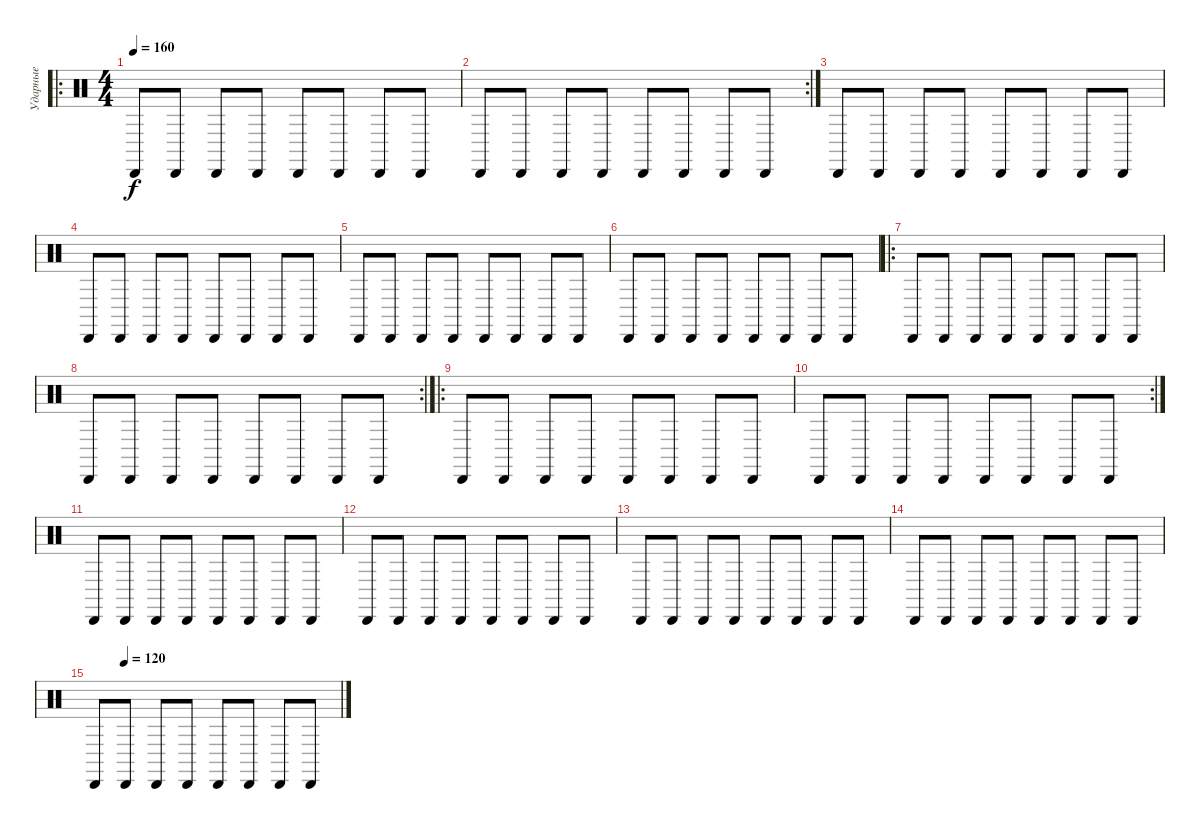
\track ("Ударные" "Ударные") {instrument percussion}
\staff {score}
\articulation defaults
\ro
\ts (4 4)
\tempo 160
\clef neutral
\ks c "Cabasa (hit)".8{dy f} "Cabasa (hit)".8 "Cabasa (hit)".8 "Cabasa (hit)".8 "Cabasa (hit)".8 "Cabasa (hit)".8 "Cabasa (hit)".8 "Cabasa (hit)".8
|
\rc 2 "Cabasa (hit)".8 "Cabasa (hit)".8 "Cabasa (hit)".8 "Cabasa (hit)".8 "Cabasa (hit)".8 "Cabasa (hit)".8 "Cabasa (hit)".8 "Cabasa (hit)".8
|
"Cabasa (hit)".8 "Cabasa (hit)".8 "Cabasa (hit)".8 "Cabasa (hit)".8 "Cabasa (hit)".8 "Cabasa (hit)".8 "Cabasa (hit)".8 "Cabasa (hit)".8 |
"Cabasa (hit)".8 "Cabasa (hit)".8 "Cabasa (hit)".8 "Cabasa (hit)".8 "Cabasa (hit)".8 "Cabasa (hit)".8 "Cabasa (hit)".8 "Cabasa (hit)".8 |
"Cabasa (hit)".8 "Cabasa (hit)".8 "Cabasa (hit)".8 "Cabasa (hit)".8 "Cabasa (hit)".8 "Cabasa (hit)".8 "Cabasa (hit)".8 "Cabasa (hit)".8 |
"Cabasa (hit)".8 "Cabasa (hit)".8 "Cabasa (hit)".8 "Cabasa (hit)".8 "Cabasa (hit)".8 "Cabasa (hit)".8 "Cabasa (hit)".8 "Cabasa (hit)".8 |
\ro "Cabasa (hit)".8 "Cabasa (hit)".8 "Cabasa (hit)".8 "Cabasa (hit)".8 "Cabasa (hit)".8 "Cabasa (hit)".8 "Cabasa (hit)".8 "Cabasa (hit)".8
|
\rc 2 "Cabasa (hit)".8 "Cabasa (hit)".8 "Cabasa (hit)".8 "Cabasa (hit)".8 "Cabasa (hit)".8 "Cabasa (hit)".8 "Cabasa (hit)".8 "Cabasa (hit)".8
|
\ro "Cabasa (hit)".8 "Cabasa (hit)".8 "Cabasa (hit)".8 "Cabasa (hit)".8 "Cabasa (hit)".8 "Cabasa (hit)".8 "Cabasa (hit)".8 "Cabasa (hit)".8
|
\rc 2 "Cabasa (hit)".8 "Cabasa (hit)".8 "Cabasa (hit)".8 "Cabasa (hit)".8 "Cabasa (hit)".8 "Cabasa (hit)".8 "Cabasa (hit)".8 "Cabasa (hit)".8
|
"Cabasa (hit)".8 "Cabasa (hit)".8 "Cabasa (hit)".8 "Cabasa (hit)".8 "Cabasa (hit)".8 "Cabasa (hit)".8 "Cabasa (hit)".8 "Cabasa (hit)".8 |
"Cabasa (hit)".8 "Cabasa (hit)".8 "Cabasa (hit)".8 "Cabasa (hit)".8 "Cabasa (hit)".8 "Cabasa (hit)".8 "Cabasa (hit)".8 "Cabasa (hit)".8 |
"Cabasa (hit)".8 "Cabasa (hit)".8 "Cabasa (hit)".8 "Cabasa (hit)".8 "Cabasa (hit)".8 "Cabasa (hit)".8 "Cabasa (hit)".8 "Cabasa (hit)".8 |
"Cabasa (hit)".8 "Cabasa (hit)".8 "Cabasa (hit)".8 "Cabasa (hit)".8 "Cabasa (hit)".8 "Cabasa (hit)".8 "Cabasa (hit)".8 "Cabasa (hit)".8 |
\tempo (120 0.125)
"Cabasa (hit)".8 "Cabasa (hit)".8 "Cabasa (hit)".8 "Cabasa (hit)".8 "Cabasa (hit)".8 "Cabasa (hit)".8 "Cabasa (hit)".8 "Cabasa (hit)".8
